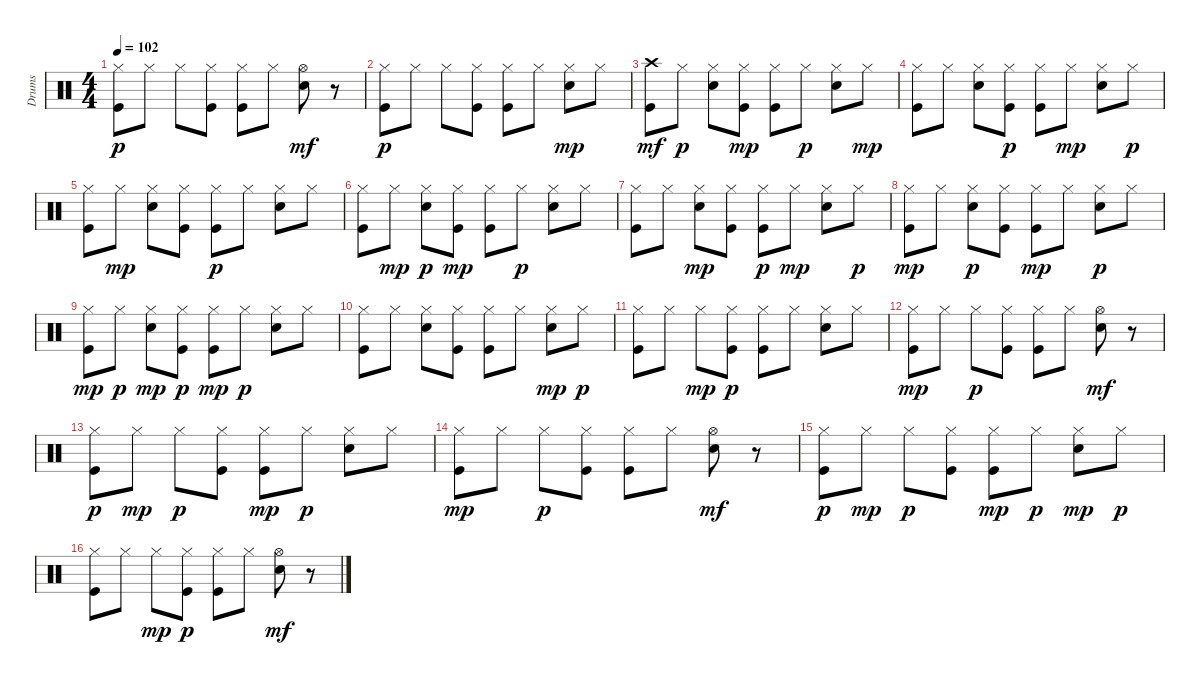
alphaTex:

\track ("Drums" "Drums") {instrument percussion}
\staff {score}
\articulation defaults
\ts (4 4)
\tempo 102
\clef neutral
\ks c
("Kick (hit)" "Hi-Hat (closed)").8{dy p} "Hi-Hat (closed)".8 "Hi-Hat (closed)".8 ("Kick (hit)" "Hi-Hat (closed)").8 ("Kick (hit)" "Hi-Hat (closed)").8 "Hi-Hat (closed)".8 ("Hi-Hat (open)" "Snare (hit) 2").8{dy mf} r.8 |
("Kick (hit)" "Hi-Hat (closed)").8{dy p} "Hi-Hat (closed)".8 "Hi-Hat (closed)".8 ("Kick (hit)" "Hi-Hat (closed)").8 ("Kick (hit)" "Hi-Hat (closed)").8 "Hi-Hat (closed)".8 ("Snare (hit) 2" "Hi-Hat (closed)").8{dy mp} "Hi-Hat (closed)".8 |
("Crash high (hit)" "Kick (hit)").8{dy mf} "Hi-Hat (closed)".8{dy p} ("Snare (hit) 2" "Hi-Hat (closed)").8 ("Kick (hit)" "Hi-Hat (closed)").8{dy mp} ("Kick (hit)" "Hi-Hat (closed)").8 "Hi-Hat (closed)".8{dy p} ("Snare (hit) 2" "Hi-Hat (closed)").8 "Hi-Hat (closed)".8{dy mp} |
("Kick (hit)" "Hi-Hat (closed)").8 "Hi-Hat (closed)".8 ("Snare (hit) 2" "Hi-Hat (closed)").8 ("Kick (hit)" "Hi-Hat (closed)").8{dy p} ("Kick (hit)" "Hi-Hat (closed)").8 "Hi-Hat (closed)".8{dy mp} ("Snare (hit) 2" "Hi-Hat (closed)").8 "Hi-Hat (closed)".8{dy p} |
("Kick (hit)" "Hi-Hat (closed)").8 "Hi-Hat (closed)".8{dy mp} ("Snare (hit) 2" "Hi-Hat (closed)").8 ("Kick (hit)" "Hi-Hat (closed)").8 ("Kick (hit)" "Hi-Hat (closed)").8{dy p} "Hi-Hat (closed)".8 ("Snare (hit) 2" "Hi-Hat (closed)").8 "Hi-Hat (closed)".8 |
("Kick (hit)" "Hi-Hat (closed)").8 "Hi-Hat (closed)".8{dy mp} ("Snare (hit) 2" "Hi-Hat (closed)").8{dy p} ("Kick (hit)" "Hi-Hat (closed)").8{dy mp} ("Kick (hit)" "Hi-Hat (closed)").8 "Hi-Hat (closed)".8{dy p} ("Snare (hit) 2" "Hi-Hat (closed)").8 "Hi-Hat (closed)".8 |
("Kick (hit)" "Hi-Hat (closed)").8 "Hi-Hat (closed)".8 ("Snare (hit) 2" "Hi-Hat (closed)").8{dy mp} ("Kick (hit)" "Hi-Hat (closed)").8 ("Kick (hit)" "Hi-Hat (closed)").8{dy p} "Hi-Hat (closed)".8{dy mp} ("Snare (hit) 2" "Hi-Hat (closed)").8 "Hi-Hat (closed)".8{dy p} |
("Kick (hit)" "Hi-Hat (closed)").8{dy mp} "Hi-Hat (closed)".8 ("Snare (hit) 2" "Hi-Hat (closed)").8{dy p} ("Kick (hit)" "Hi-Hat (closed)").8 ("Kick (hit)" "Hi-Hat (closed)").8{dy mp} "Hi-Hat (closed)".8 ("Snare (hit) 2" "Hi-Hat (closed)").8{dy p} "Hi-Hat (closed)".8 |
("Kick (hit)" "Hi-Hat (closed)").8{dy mp} "Hi-Hat (closed)".8{dy p} ("Snare (hit) 2" "Hi-Hat (closed)").8{dy mp} ("Kick (hit)" "Hi-Hat (closed)").8{dy p} ("Kick (hit)" "Hi-Hat (closed)").8{dy mp} "Hi-Hat (closed)".8{dy p} ("Snare (hit) 2" "Hi-Hat (closed)").8 "Hi-Hat (closed)".8 |
("Kick (hit)" "Hi-Hat (closed)").8 "Hi-Hat (closed)".8 ("Snare (hit) 2" "Hi-Hat (closed)").8 ("Kick (hit)" "Hi-Hat (closed)").8 ("Kick (hit)" "Hi-Hat (closed)").8 "Hi-Hat (closed)".8 ("Snare (hit) 2" "Hi-Hat (closed)").8{dy mp} "Hi-Hat (closed)".8{dy p} |
("Kick (hit)" "Hi-Hat (closed)").8 "Hi-Hat (closed)".8 "Hi-Hat (closed)".8{dy mp} ("Kick (hit)" "Hi-Hat (closed)").8{dy p} ("Kick (hit)" "Hi-Hat (closed)").8 "Hi-Hat (closed)".8 ("Snare (hit) 2" "Hi-Hat (closed)").8 "Hi-Hat (closed)".8 |
("Kick (hit)" "Hi-Hat (closed)").8{dy mp} "Hi-Hat (closed)".8 "Hi-Hat (closed)".8{dy p} ("Kick (hit)" "Hi-Hat (closed)").8 ("Kick (hit)" "Hi-Hat (closed)").8 "Hi-Hat (closed)".8 ("Hi-Hat (open)" "Snare (hit) 2").8{dy mf} r.8 |
("Kick (hit)" "Hi-Hat (closed)").8{dy p} "Hi-Hat (closed)".8{dy mp} "Hi-Hat (closed)".8{dy p} ("Kick (hit)" "Hi-Hat (closed)").8 ("Kick (hit)" "Hi-Hat (closed)").8{dy mp} "Hi-Hat (closed)".8{dy p} ("Snare (hit) 2" "Hi-Hat (closed)").8 "Hi-Hat (closed)".8 |
("Kick (hit)" "Hi-Hat (closed)").8{dy mp} "Hi-Hat (closed)".8 "Hi-Hat (closed)".8{dy p} ("Kick (hit)" "Hi-Hat (closed)").8 ("Kick (hit)" "Hi-Hat (closed)").8 "Hi-Hat (closed)".8 ("Hi-Hat (open)" "Snare (hit) 2").8{dy mf} r.8 |
("Kick (hit)" "Hi-Hat (closed)").8{dy p} "Hi-Hat (closed)".8{dy mp} "Hi-Hat (closed)".8{dy p} ("Kick (hit)" "Hi-Hat (closed)").8 ("Kick (hit)" "Hi-Hat (closed)").8{dy mp} "Hi-Hat (closed)".8{dy p} ("Snare (hit) 2" "Hi-Hat (closed)").8{dy mp} "Hi-Hat (closed)".8{dy p} |
("Kick (hit)" "Hi-Hat (closed)").8 "Hi-Hat (closed)".8 "Hi-Hat (closed)".8{dy mp} ("Kick (hit)" "Hi-Hat (closed)").8{dy p} ("Kick (hit)" "Hi-Hat (closed)").8 "Hi-Hat (closed)".8 ("Hi-Hat (open)" "Snare (hit) 2").8{dy mf} r.8
